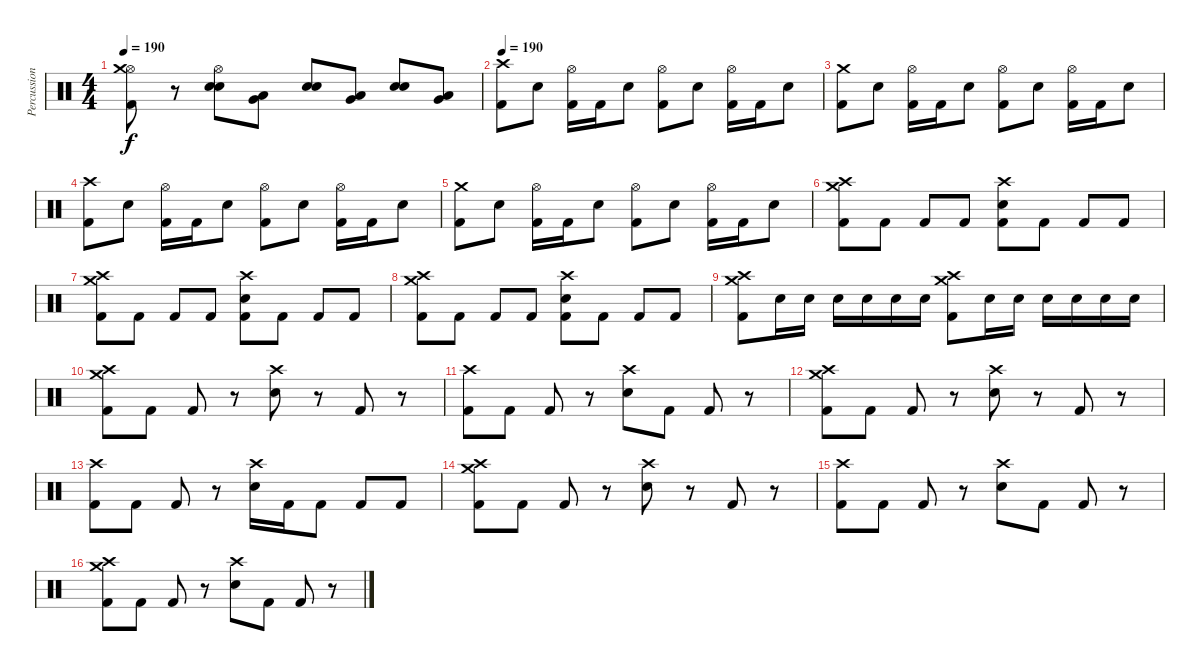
\track ("Percussion" "Percussion") {instrument percussion}
\staff {score}
\articulation defaults
\ts (4 4)
\tempo 190
\clef neutral
\ks c
("Hi-Hat (open)" "Crash medium (hit)" "Kick (hit) 2").8{dy f} r.8 ("Hi-Hat (open)" "Electric Snare (hit)" "Snare (hit) 2").8 ("Low Floor Tom (hit)" "Very Low Tom (hit)").8 ("Snare (hit) 2" "Electric Snare (hit)").8 ("Low Tom (hit)" "Very Low Tom (hit)").8 ("Snare (hit) 2" "Electric Snare (hit)").8 ("Low Floor Tom (hit)" "Very Low Tom (hit)").8 |
\tempo 190
("Crash high (hit)" "Kick (hit) 2").8 "Electric Snare (hit)".8 ("Hi-Hat (open)" "Kick (hit) 2").16 "Kick (hit) 2".16 "Electric Snare (hit)".8 ("Hi-Hat (open)" "Kick (hit) 2").8 "Electric Snare (hit)".8 ("Hi-Hat (open)" "Kick (hit) 2").16 "Kick (hit) 2".16 "Electric Snare (hit)".8 |
("Crash medium (hit)" "Kick (hit) 2").8 "Electric Snare (hit)".8 ("Hi-Hat (open)" "Kick (hit) 2").16 "Kick (hit) 2".16 "Electric Snare (hit)".8 ("Hi-Hat (open)" "Kick (hit) 2").8 "Electric Snare (hit)".8 ("Hi-Hat (open)" "Kick (hit) 2").16 "Kick (hit) 2".16 "Electric Snare (hit)".8 |
("Crash high (hit)" "Kick (hit) 2").8 "Electric Snare (hit)".8 ("Hi-Hat (open)" "Kick (hit) 2").16 "Kick (hit) 2".16 "Electric Snare (hit)".8 ("Hi-Hat (open)" "Kick (hit) 2").8 "Electric Snare (hit)".8 ("Hi-Hat (open)" "Kick (hit) 2").16 "Kick (hit) 2".16 "Electric Snare (hit)".8 |
("Crash medium (hit)" "Kick (hit) 2").8 "Electric Snare (hit)".8 ("Hi-Hat (open)" "Kick (hit) 2").16 "Kick (hit) 2".16 "Electric Snare (hit)".8 ("Hi-Hat (open)" "Kick (hit) 2").8 "Electric Snare (hit)".8 ("Hi-Hat (open)" "Kick (hit) 2").16 "Kick (hit) 2".16 "Electric Snare (hit)".8 |
("Crash high (hit)" "Crash medium (hit)" "Kick (hit) 2").8 "Kick (hit) 2".8 "Kick (hit) 2".8 "Kick (hit) 2".8 ("Crash high (hit)" "Electric Snare (hit)" "Kick (hit) 2").8 "Kick (hit) 2".8 "Kick (hit) 2".8 "Kick (hit) 2".8 |
("Crash high (hit)" "Crash medium (hit)" "Kick (hit) 2").8 "Kick (hit) 2".8 "Kick (hit) 2".8 "Kick (hit) 2".8 ("Crash high (hit)" "Electric Snare (hit)" "Kick (hit) 2").8 "Kick (hit) 2".8 "Kick (hit) 2".8 "Kick (hit) 2".8 |
("Crash high (hit)" "Crash medium (hit)" "Kick (hit) 2").8 "Kick (hit) 2".8 "Kick (hit) 2".8 "Kick (hit) 2".8 ("Crash high (hit)" "Electric Snare (hit)" "Kick (hit) 2").8 "Kick (hit) 2".8 "Kick (hit) 2".8 "Kick (hit) 2".8 |
("Crash high (hit)" "Crash medium (hit)" "Kick (hit) 2").8 "Electric Snare (hit)".16 "Electric Snare (hit)".16 "Electric Snare (hit)".16 "Electric Snare (hit)".16 "Electric Snare (hit)".16 "Electric Snare (hit)".16 ("Crash high (hit)" "Crash medium (hit)" "Kick (hit) 2").8 "Electric Snare (hit)".16 "Electric Snare (hit)".16 "Electric Snare (hit)".16 "Electric Snare (hit)".16 "Electric Snare (hit)".16 "Electric Snare (hit)".16 |
("Crash high (hit)" "Crash medium (hit)" "Kick (hit) 2").8 "Kick (hit) 2".8 "Kick (hit) 2".8 r.8 ("Crash high (hit)" "Electric Snare (hit)").8 r.8 "Kick (hit) 2".8 r.8 |
("Crash high (hit)" "Kick (hit) 2").8 "Kick (hit) 2".8 "Kick (hit) 2".8 r.8 ("Crash high (hit)" "Electric Snare (hit)").8 "Kick (hit) 2".8 "Kick (hit) 2".8 r.8 |
("Crash high (hit)" "Crash medium (hit)" "Kick (hit) 2").8 "Kick (hit) 2".8 "Kick (hit) 2".8 r.8 ("Crash high (hit)" "Electric Snare (hit)").8 r.8 "Kick (hit) 2".8 r.8 |
("Crash high (hit)" "Kick (hit) 2").8 "Kick (hit) 2".8 "Kick (hit) 2".8 r.8 ("Crash high (hit)" "Electric Snare (hit)").16 "Kick (hit) 2".16 "Kick (hit) 2".8 "Kick (hit) 2".8 "Kick (hit) 2".8 |
("Crash high (hit)" "Crash medium (hit)" "Kick (hit) 2").8 "Kick (hit) 2".8 "Kick (hit) 2".8 r.8 ("Crash high (hit)" "Electric Snare (hit)").8 r.8 "Kick (hit) 2".8 r.8 |
("Crash high (hit)" "Kick (hit) 2").8 "Kick (hit) 2".8 "Kick (hit) 2".8 r.8 ("Crash high (hit)" "Electric Snare (hit)").8 "Kick (hit) 2".8 "Kick (hit) 2".8 r.8 |
("Crash high (hit)" "Crash medium (hit)" "Kick (hit) 2").8 "Kick (hit) 2".8 "Kick (hit) 2".8 r.8 ("Crash high (hit)" "Electric Snare (hit)").8 "Kick (hit) 2".8 "Kick (hit) 2".8 r.8
